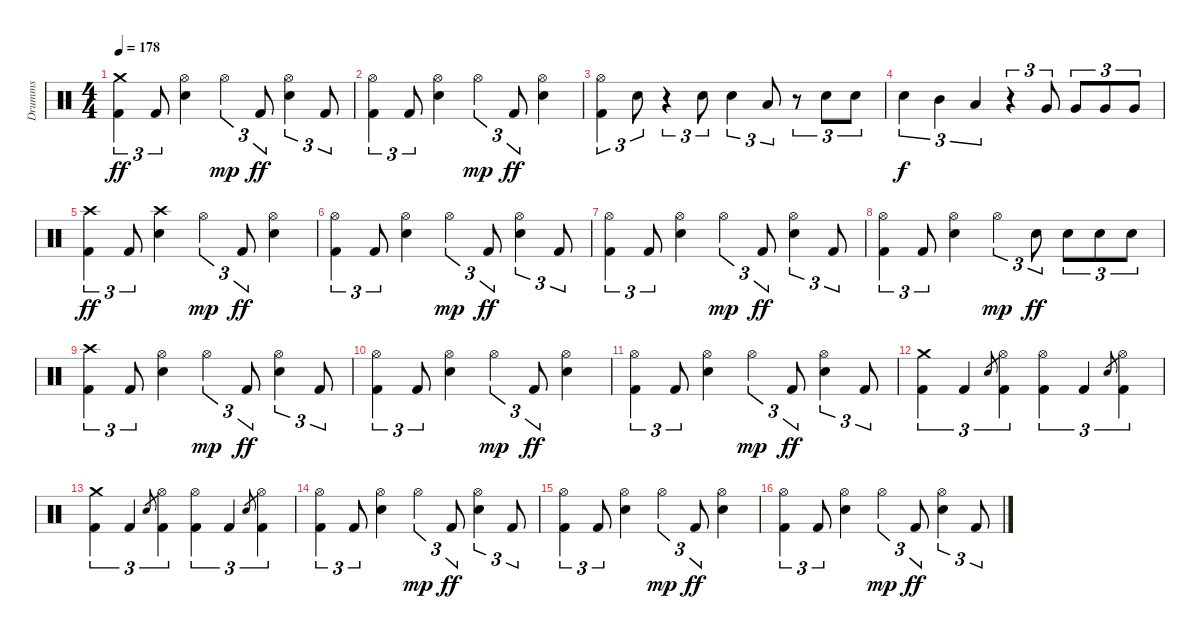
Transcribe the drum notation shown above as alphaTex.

\track ("Drumms" "Drumms") {instrument percussion}
\staff {score}
\articulation defaults
\ts (4 4)
\tempo 178
\clef neutral
\ks c
("Crash medium (hit)" "Kick (hit) 2").4{tu (3 2) dy ff} "Kick (hit) 2".8{tu (3 2)} ("Hi-Hat (open)" "Electric Snare (hit)").4 "Hi-Hat (open)".4{tu (3 2) dy mp} "Kick (hit) 2".8{tu (3 2) dy ff} ("Hi-Hat (open)" "Electric Snare (hit)").4{tu (3 2)} "Kick (hit) 2".8{tu (3 2)} |
("Hi-Hat (open)" "Kick (hit) 2").4{tu (3 2)} "Kick (hit) 2".8{tu (3 2)} ("Hi-Hat (open)" "Electric Snare (hit)").4 "Hi-Hat (open)".4{tu (3 2) dy mp} "Kick (hit) 2".8{tu (3 2) dy ff} ("Hi-Hat (open)" "Electric Snare (hit)").4 |
("Hi-Hat (open)" "Kick (hit) 2").4{tu (3 2)} "Electric Snare (hit)".8{tu (3 2)} r.4{tu (3 2)} "Electric Snare (hit)".8{tu (3 2)} "Electric Snare (hit)".4{tu (3 2)} "Low Tom (hit)".8{tu (3 2)} r.8{tu (3 2)} "Electric Snare (hit)".8{tu (3 2)} "Electric Snare (hit)".8{tu (3 2)} |
"Electric Snare (hit)".4{tu (3 2) dy f} "Mid Tom (hit)".4{tu (3 2)} "Low Tom (hit)".4{tu (3 2)} r.4{tu (3 2)} "Very Low Tom (hit)".8{tu (3 2)} "Very Low Tom (hit)".8{tu (3 2)} "Very Low Tom (hit)".8{tu (3 2)} "Very Low Tom (hit)".8{tu (3 2)} |
("Crash high (hit)" "Kick (hit) 2").4{tu (3 2) dy ff} "Kick (hit) 2".8{tu (3 2)} ("Crash high (hit)" "Electric Snare (hit)").4 "Hi-Hat (open)".4{tu (3 2) dy mp} "Kick (hit) 2".8{tu (3 2) dy ff} ("Hi-Hat (open)" "Electric Snare (hit)").4 |
("Hi-Hat (open)" "Kick (hit) 2").4{tu (3 2)} "Kick (hit) 2".8{tu (3 2)} ("Hi-Hat (open)" "Electric Snare (hit)").4 "Hi-Hat (open)".4{tu (3 2) dy mp} "Kick (hit) 2".8{tu (3 2) dy ff} ("Hi-Hat (open)" "Electric Snare (hit)").4{tu (3 2)} "Kick (hit) 2".8{tu (3 2)} |
("Hi-Hat (open)" "Kick (hit) 2").4{tu (3 2)} "Kick (hit) 2".8{tu (3 2)} ("Hi-Hat (open)" "Electric Snare (hit)").4 "Hi-Hat (open)".4{tu (3 2) dy mp} "Kick (hit) 2".8{tu (3 2) dy ff} ("Hi-Hat (open)" "Electric Snare (hit)").4{tu (3 2)} "Kick (hit) 2".8{tu (3 2)} |
("Hi-Hat (open)" "Kick (hit) 2").4{tu (3 2)} "Kick (hit) 2".8{tu (3 2)} ("Hi-Hat (open)" "Electric Snare (hit)").4 "Hi-Hat (open)".4{tu (3 2) dy mp} "Electric Snare (hit)".8{tu (3 2) dy ff} "Electric Snare (hit)".8{tu (3 2)} "Electric Snare (hit)".8{tu (3 2)} "Electric Snare (hit)".8{tu (3 2)} |
("Crash high (hit)" "Kick (hit) 2").4{tu (3 2)} "Kick (hit) 2".8{tu (3 2)} ("Hi-Hat (open)" "Electric Snare (hit)").4 "Hi-Hat (open)".4{tu (3 2) dy mp} "Kick (hit) 2".8{tu (3 2) dy ff} ("Hi-Hat (open)" "Electric Snare (hit)").4{tu (3 2)} "Kick (hit) 2".8{tu (3 2)} |
("Hi-Hat (open)" "Kick (hit) 2").4{tu (3 2)} "Kick (hit) 2".8{tu (3 2)} ("Hi-Hat (open)" "Electric Snare (hit)").4 "Hi-Hat (open)".4{tu (3 2) dy mp} "Kick (hit) 2".8{tu (3 2) dy ff} ("Hi-Hat (open)" "Electric Snare (hit)").4 |
("Hi-Hat (open)" "Kick (hit) 2").4{tu (3 2)} "Kick (hit) 2".8{tu (3 2)} ("Hi-Hat (open)" "Electric Snare (hit)").4 "Hi-Hat (open)".4{tu (3 2) dy mp} "Kick (hit) 2".8{tu (3 2) dy ff} ("Hi-Hat (open)" "Electric Snare (hit)").4{tu (3 2)} "Kick (hit) 2".8{tu (3 2)} |
("Crash medium (hit)" "Kick (hit) 2").4{tu (3 2)} "Kick (hit) 2".4{tu (3 2)} "Electric Snare (hit)".8{gr} ("Hi-Hat (open)" "Kick (hit) 2").4{tu (3 2)} ("Hi-Hat (open)" "Kick (hit) 2").4{tu (3 2)} "Kick (hit) 2".4{tu (3 2)} "Electric Snare (hit)".8{gr} ("Hi-Hat (open)" "Kick (hit) 2").4{tu (3 2)} |
("Crash medium (hit)" "Kick (hit) 2").4{tu (3 2)} "Kick (hit) 2".4{tu (3 2)} "Electric Snare (hit)".8{gr} ("Hi-Hat (open)" "Kick (hit) 2").4{tu (3 2)} ("Hi-Hat (open)" "Kick (hit) 2").4{tu (3 2)} "Kick (hit) 2".4{tu (3 2)} "Electric Snare (hit)".8{gr} ("Hi-Hat (open)" "Kick (hit) 2").4{tu (3 2)} |
("Hi-Hat (open)" "Kick (hit) 2").4{tu (3 2)} "Kick (hit) 2".8{tu (3 2)} ("Hi-Hat (open)" "Electric Snare (hit)").4 "Hi-Hat (open)".4{tu (3 2) dy mp} "Kick (hit) 2".8{tu (3 2) dy ff} ("Hi-Hat (open)" "Electric Snare (hit)").4{tu (3 2)} "Kick (hit) 2".8{tu (3 2)} |
("Hi-Hat (open)" "Kick (hit) 2").4{tu (3 2)} "Kick (hit) 2".8{tu (3 2)} ("Hi-Hat (open)" "Electric Snare (hit)").4 "Hi-Hat (open)".4{tu (3 2) dy mp} "Kick (hit) 2".8{tu (3 2) dy ff} ("Hi-Hat (open)" "Electric Snare (hit)").4 |
("Hi-Hat (open)" "Kick (hit) 2").4{tu (3 2)} "Kick (hit) 2".8{tu (3 2)} ("Hi-Hat (open)" "Electric Snare (hit)").4 "Hi-Hat (open)".4{tu (3 2) dy mp} "Kick (hit) 2".8{tu (3 2) dy ff} ("Hi-Hat (open)" "Electric Snare (hit)").4{tu (3 2)} "Kick (hit) 2".8{tu (3 2)}
